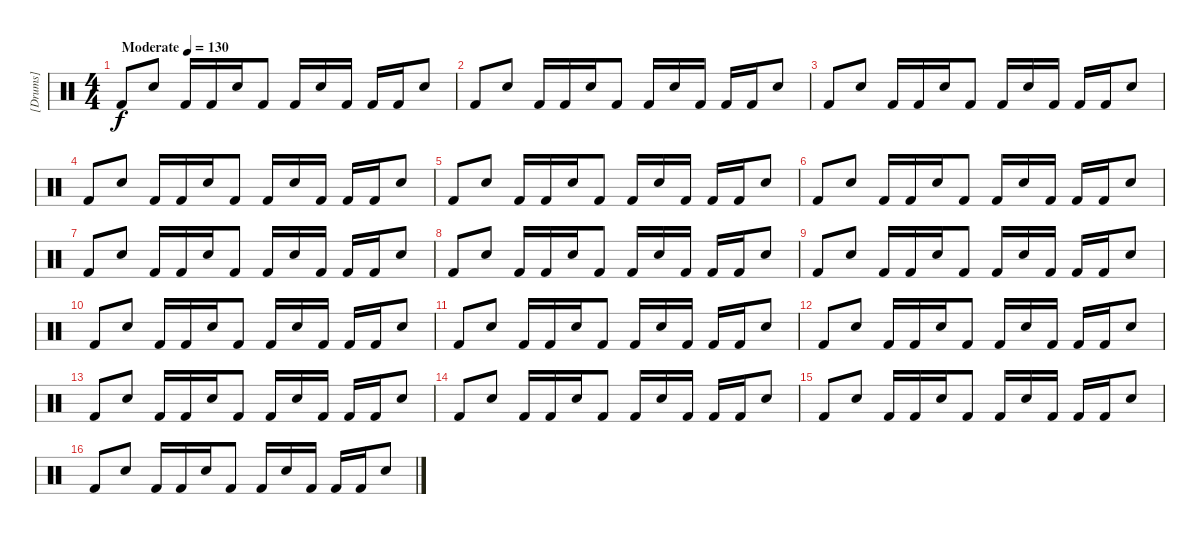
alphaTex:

\track ("[Drums]" "[Drums]") {instrument percussion}
\staff {score}
\articulation defaults
\ts (4 4)
\tempo (130 "Moderate")
\clef neutral
\ks c "Kick (hit) 2".8{dy f} "Electric Snare (hit)".8 "Kick (hit) 2".16 "Kick (hit) 2".16 "Electric Snare (hit)".16 "Kick (hit) 2".8 "Kick (hit) 2".16 "Electric Snare (hit)".16 "Kick (hit) 2".16 "Kick (hit) 2".16 "Kick (hit) 2".16 "Electric Snare (hit)".8
|
"Kick (hit) 2".8 "Electric Snare (hit)".8 "Kick (hit) 2".16 "Kick (hit) 2".16 "Electric Snare (hit)".16 "Kick (hit) 2".8 "Kick (hit) 2".16 "Electric Snare (hit)".16 "Kick (hit) 2".16 "Kick (hit) 2".16 "Kick (hit) 2".16 "Electric Snare (hit)".8 |
"Kick (hit) 2".8 "Electric Snare (hit)".8 "Kick (hit) 2".16 "Kick (hit) 2".16 "Electric Snare (hit)".16 "Kick (hit) 2".8 "Kick (hit) 2".16 "Electric Snare (hit)".16 "Kick (hit) 2".16 "Kick (hit) 2".16 "Kick (hit) 2".16 "Electric Snare (hit)".8 |
"Kick (hit) 2".8 "Electric Snare (hit)".8 "Kick (hit) 2".16 "Kick (hit) 2".16 "Electric Snare (hit)".16 "Kick (hit) 2".8 "Kick (hit) 2".16 "Electric Snare (hit)".16 "Kick (hit) 2".16 "Kick (hit) 2".16 "Kick (hit) 2".16 "Electric Snare (hit)".8 |
"Kick (hit) 2".8 "Electric Snare (hit)".8 "Kick (hit) 2".16 "Kick (hit) 2".16 "Electric Snare (hit)".16 "Kick (hit) 2".8 "Kick (hit) 2".16 "Electric Snare (hit)".16 "Kick (hit) 2".16 "Kick (hit) 2".16 "Kick (hit) 2".16 "Electric Snare (hit)".8 |
"Kick (hit) 2".8 "Electric Snare (hit)".8 "Kick (hit) 2".16 "Kick (hit) 2".16 "Electric Snare (hit)".16 "Kick (hit) 2".8 "Kick (hit) 2".16 "Electric Snare (hit)".16 "Kick (hit) 2".16 "Kick (hit) 2".16 "Kick (hit) 2".16 "Electric Snare (hit)".8 |
"Kick (hit) 2".8 "Electric Snare (hit)".8 "Kick (hit) 2".16 "Kick (hit) 2".16 "Electric Snare (hit)".16 "Kick (hit) 2".8 "Kick (hit) 2".16 "Electric Snare (hit)".16 "Kick (hit) 2".16 "Kick (hit) 2".16 "Kick (hit) 2".16 "Electric Snare (hit)".8 |
"Kick (hit) 2".8 "Electric Snare (hit)".8 "Kick (hit) 2".16 "Kick (hit) 2".16 "Electric Snare (hit)".16 "Kick (hit) 2".8 "Kick (hit) 2".16 "Electric Snare (hit)".16 "Kick (hit) 2".16 "Kick (hit) 2".16 "Kick (hit) 2".16 "Electric Snare (hit)".8 |
"Kick (hit) 2".8 "Electric Snare (hit)".8 "Kick (hit) 2".16 "Kick (hit) 2".16 "Electric Snare (hit)".16 "Kick (hit) 2".8 "Kick (hit) 2".16 "Electric Snare (hit)".16 "Kick (hit) 2".16 "Kick (hit) 2".16 "Kick (hit) 2".16 "Electric Snare (hit)".8 |
"Kick (hit) 2".8 "Electric Snare (hit)".8 "Kick (hit) 2".16 "Kick (hit) 2".16 "Electric Snare (hit)".16 "Kick (hit) 2".8 "Kick (hit) 2".16 "Electric Snare (hit)".16 "Kick (hit) 2".16 "Kick (hit) 2".16 "Kick (hit) 2".16 "Electric Snare (hit)".8 |
"Kick (hit) 2".8 "Electric Snare (hit)".8 "Kick (hit) 2".16 "Kick (hit) 2".16 "Electric Snare (hit)".16 "Kick (hit) 2".8 "Kick (hit) 2".16 "Electric Snare (hit)".16 "Kick (hit) 2".16 "Kick (hit) 2".16 "Kick (hit) 2".16 "Electric Snare (hit)".8 |
"Kick (hit) 2".8 "Electric Snare (hit)".8 "Kick (hit) 2".16 "Kick (hit) 2".16 "Electric Snare (hit)".16 "Kick (hit) 2".8 "Kick (hit) 2".16 "Electric Snare (hit)".16 "Kick (hit) 2".16 "Kick (hit) 2".16 "Kick (hit) 2".16 "Electric Snare (hit)".8 |
"Kick (hit) 2".8 "Electric Snare (hit)".8 "Kick (hit) 2".16 "Kick (hit) 2".16 "Electric Snare (hit)".16 "Kick (hit) 2".8 "Kick (hit) 2".16 "Electric Snare (hit)".16 "Kick (hit) 2".16 "Kick (hit) 2".16 "Kick (hit) 2".16 "Electric Snare (hit)".8 |
"Kick (hit) 2".8 "Electric Snare (hit)".8 "Kick (hit) 2".16 "Kick (hit) 2".16 "Electric Snare (hit)".16 "Kick (hit) 2".8 "Kick (hit) 2".16 "Electric Snare (hit)".16 "Kick (hit) 2".16 "Kick (hit) 2".16 "Kick (hit) 2".16 "Electric Snare (hit)".8 |
"Kick (hit) 2".8 "Electric Snare (hit)".8 "Kick (hit) 2".16 "Kick (hit) 2".16 "Electric Snare (hit)".16 "Kick (hit) 2".8 "Kick (hit) 2".16 "Electric Snare (hit)".16 "Kick (hit) 2".16 "Kick (hit) 2".16 "Kick (hit) 2".16 "Electric Snare (hit)".8 |
"Kick (hit) 2".8 "Electric Snare (hit)".8 "Kick (hit) 2".16 "Kick (hit) 2".16 "Electric Snare (hit)".16 "Kick (hit) 2".8 "Kick (hit) 2".16 "Electric Snare (hit)".16 "Kick (hit) 2".16 "Kick (hit) 2".16 "Kick (hit) 2".16 "Electric Snare (hit)".8
